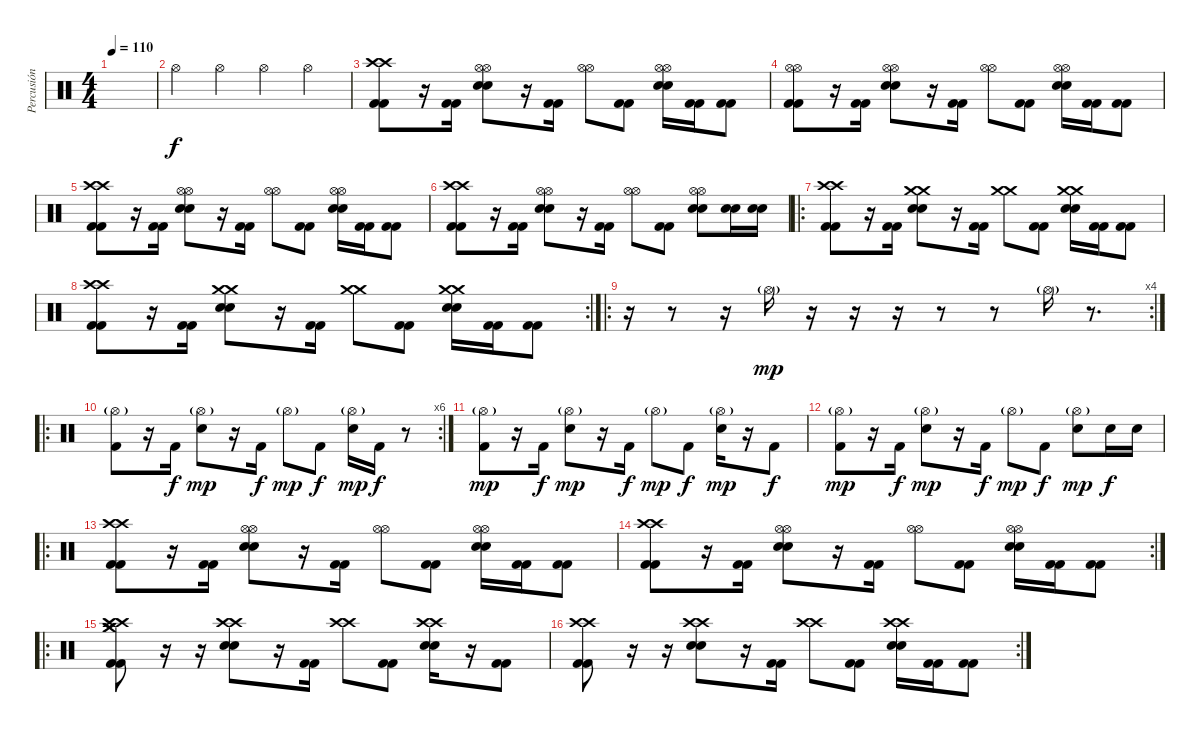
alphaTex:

\track ("Percusión" "Percusión") {instrument percussion}
\staff {score}
\articulation defaults
\ts (4 4)
\tempo 110
\clef neutral
\ks c
|
"Hi-Hat (open)".4 "Hi-Hat (open)".4 "Hi-Hat (open)".4 "Hi-Hat (open)".4 |
("Crash high (hit)" "Crash high (hit)" "Kick (hit) 2" "Kick (hit) 2").8 r.16 ("Kick (hit) 2" "Kick (hit) 2").16 ("Hi-Hat (open)" "Hi-Hat (open)" "Electric Snare (hit)" "Electric Snare (hit)").8 r.16 ("Kick (hit) 2" "Kick (hit) 2").16 ("Hi-Hat (open)" "Hi-Hat (open)").8 ("Kick (hit) 2" "Kick (hit) 2").8 ("Hi-Hat (open)" "Hi-Hat (open)" "Electric Snare (hit)" "Electric Snare (hit)").16 ("Kick (hit) 2" "Kick (hit) 2").16 ("Kick (hit) 2" "Kick (hit) 2").8 |
("Hi-Hat (open)" "Hi-Hat (open)" "Kick (hit) 2" "Kick (hit) 2").8 r.16 ("Kick (hit) 2" "Kick (hit) 2").16 ("Hi-Hat (open)" "Hi-Hat (open)" "Electric Snare (hit)" "Electric Snare (hit)").8 r.16 ("Kick (hit) 2" "Kick (hit) 2").16 ("Hi-Hat (open)" "Hi-Hat (open)").8 ("Kick (hit) 2" "Kick (hit) 2").8 ("Hi-Hat (open)" "Hi-Hat (open)" "Electric Snare (hit)" "Electric Snare (hit)").16 ("Kick (hit) 2" "Kick (hit) 2").16 ("Kick (hit) 2" "Kick (hit) 2").8 |
("Crash high (hit)" "Crash high (hit)" "Kick (hit) 2" "Kick (hit) 2").8 r.16 ("Kick (hit) 2" "Kick (hit) 2").16 ("Hi-Hat (open)" "Hi-Hat (open)" "Electric Snare (hit)" "Electric Snare (hit)").8 r.16 ("Kick (hit) 2" "Kick (hit) 2").16 ("Hi-Hat (open)" "Hi-Hat (open)").8 ("Kick (hit) 2" "Kick (hit) 2").8 ("Hi-Hat (open)" "Hi-Hat (open)" "Electric Snare (hit)" "Electric Snare (hit)").16 ("Kick (hit) 2" "Kick (hit) 2").16 ("Kick (hit) 2" "Kick (hit) 2").8 |
("Crash high (hit)" "Crash high (hit)" "Kick (hit) 2" "Kick (hit) 2").8 r.16 ("Kick (hit) 2" "Kick (hit) 2").16 ("Hi-Hat (open)" "Hi-Hat (open)" "Electric Snare (hit)" "Electric Snare (hit)").8 r.16 ("Kick (hit) 2" "Kick (hit) 2").16 ("Hi-Hat (open)" "Hi-Hat (open)").8 ("Kick (hit) 2" "Kick (hit) 2").8 ("Hi-Hat (open)" "Hi-Hat (open)" "Electric Snare (hit)" "Electric Snare (hit)").8 ("Electric Snare (hit)" "Electric Snare (hit)").16 ("Electric Snare (hit)" "Electric Snare (hit)").16 |
\ro
("Crash high (hit)" "Crash high (hit)" "Kick (hit) 2" "Kick (hit) 2").8 r.16 ("Kick (hit) 2" "Kick (hit) 2").16 ("Crash medium (hit)" "Crash medium (hit)" "Electric Snare (hit)" "Electric Snare (hit)").8 r.16 ("Kick (hit) 2" "Kick (hit) 2").16 ("Crash medium (hit)" "Crash medium (hit)").8 ("Kick (hit) 2" "Kick (hit) 2").8 ("Crash medium (hit)" "Crash medium (hit)" "Electric Snare (hit)" "Electric Snare (hit)").16 ("Kick (hit) 2" "Kick (hit) 2").16 ("Kick (hit) 2" "Kick (hit) 2").8 |
\rc 2
("Crash high (hit)" "Crash high (hit)" "Kick (hit) 2" "Kick (hit) 2").8 r.16 ("Kick (hit) 2" "Kick (hit) 2").16 ("Crash medium (hit)" "Crash medium (hit)" "Electric Snare (hit)" "Electric Snare (hit)").8 r.16 ("Kick (hit) 2" "Kick (hit) 2").16 ("Crash medium (hit)" "Crash medium (hit)").8 ("Kick (hit) 2" "Kick (hit) 2").8 ("Crash medium (hit)" "Crash medium (hit)" "Electric Snare (hit)" "Electric Snare (hit)").16 ("Kick (hit) 2" "Kick (hit) 2").16 ("Kick (hit) 2" "Kick (hit) 2").8 |
\ro
\rc 4
r.16 r.8 r.16 "Hi-Hat (open)"{g}.16{dy mp} r.16 r.16 r.16 r.8 r.8 "Hi-Hat (open)"{g}.16 r.8{d} |
\ro
\rc 6
("Hi-Hat (open)"{g} "Kick (hit) 2").8 r.16 "Kick (hit) 2".16{dy f} ("Hi-Hat (open)"{g} "Electric Snare (hit)").8{dy mp} r.16 "Kick (hit) 2".16{dy f} "Hi-Hat (open)"{g}.8{dy mp} "Kick (hit) 2".8{dy f} ("Hi-Hat (open)"{g} "Electric Snare (hit)").16{dy mp} "Kick (hit) 2".16{dy f} r.8 |
("Hi-Hat (open)"{g} "Kick (hit) 2").8{dy mp} r.16 "Kick (hit) 2".16{dy f} ("Hi-Hat (open)"{g} "Electric Snare (hit)").8{dy mp} r.16 "Kick (hit) 2".16{dy f} "Hi-Hat (open)"{g}.8{dy mp} "Kick (hit) 2".8{dy f} ("Hi-Hat (open)"{g} "Electric Snare (hit)").16{dy mp} r.16 "Kick (hit) 2".8{dy f} |
("Hi-Hat (open)"{g} "Kick (hit) 2").8{dy mp} r.16 "Kick (hit) 2".16{dy f} ("Hi-Hat (open)"{g} "Electric Snare (hit)").8{dy mp} r.16 "Kick (hit) 2".16{dy f} "Hi-Hat (open)"{g}.8{dy mp} "Kick (hit) 2".8{dy f} ("Hi-Hat (open)"{g} "Electric Snare (hit)").8{dy mp} "Electric Snare (hit)".16{dy f} "Electric Snare (hit)".16 |
\ro
("Crash high (hit)" "Crash high (hit)" "Kick (hit) 2" "Kick (hit) 2").8 r.16 ("Kick (hit) 2" "Kick (hit) 2").16 ("Hi-Hat (open)" "Hi-Hat (open)" "Electric Snare (hit)" "Electric Snare (hit)").8 r.16 ("Kick (hit) 2" "Kick (hit) 2").16 ("Hi-Hat (open)" "Hi-Hat (open)").8 ("Kick (hit) 2" "Kick (hit) 2").8 ("Hi-Hat (open)" "Hi-Hat (open)" "Electric Snare (hit)" "Electric Snare (hit)").16 ("Kick (hit) 2" "Kick (hit) 2").16 ("Kick (hit) 2" "Kick (hit) 2").8 |
\rc 2
("Crash high (hit)" "Crash high (hit)" "Kick (hit) 2" "Kick (hit) 2").8 r.16 ("Kick (hit) 2" "Kick (hit) 2").16 ("Hi-Hat (open)" "Hi-Hat (open)" "Electric Snare (hit)" "Electric Snare (hit)").8 r.16 ("Kick (hit) 2" "Kick (hit) 2").16 ("Hi-Hat (open)" "Hi-Hat (open)").8 ("Kick (hit) 2" "Kick (hit) 2").8 ("Hi-Hat (open)" "Hi-Hat (open)" "Electric Snare (hit)" "Electric Snare (hit)").16 ("Kick (hit) 2" "Kick (hit) 2").16 ("Kick (hit) 2" "Kick (hit) 2").8 |
\ro
("Crash medium (hit)" "Crash medium (hit)" "Crash high (hit)" "Crash high (hit)" "Kick (hit) 2" "Kick (hit) 2").8 r.16 r.16 ("Crash high (hit)" "Crash high (hit)" "Electric Snare (hit)" "Electric Snare (hit)").8 r.16 ("Kick (hit) 2" "Kick (hit) 2").16 ("Crash high (hit)" "Crash high (hit)").8 ("Kick (hit) 2" "Kick (hit) 2").8 ("Crash high (hit)" "Crash high (hit)" "Electric Snare (hit)" "Electric Snare (hit)").16 r.16 ("Kick (hit) 2" "Kick (hit) 2").8 |
\rc 2
("Crash high (hit)" "Crash high (hit)" "Kick (hit) 2" "Kick (hit) 2").8 r.16 r.16 ("Crash high (hit)" "Crash high (hit)" "Electric Snare (hit)" "Electric Snare (hit)").8 r.16 ("Kick (hit) 2" "Kick (hit) 2").16 ("Crash high (hit)" "Crash high (hit)").8 ("Kick (hit) 2" "Kick (hit) 2").8 ("Crash high (hit)" "Crash high (hit)" "Electric Snare (hit)" "Electric Snare (hit)").16 ("Kick (hit) 2" "Kick (hit) 2").16 ("Kick (hit) 2" "Kick (hit) 2").8
